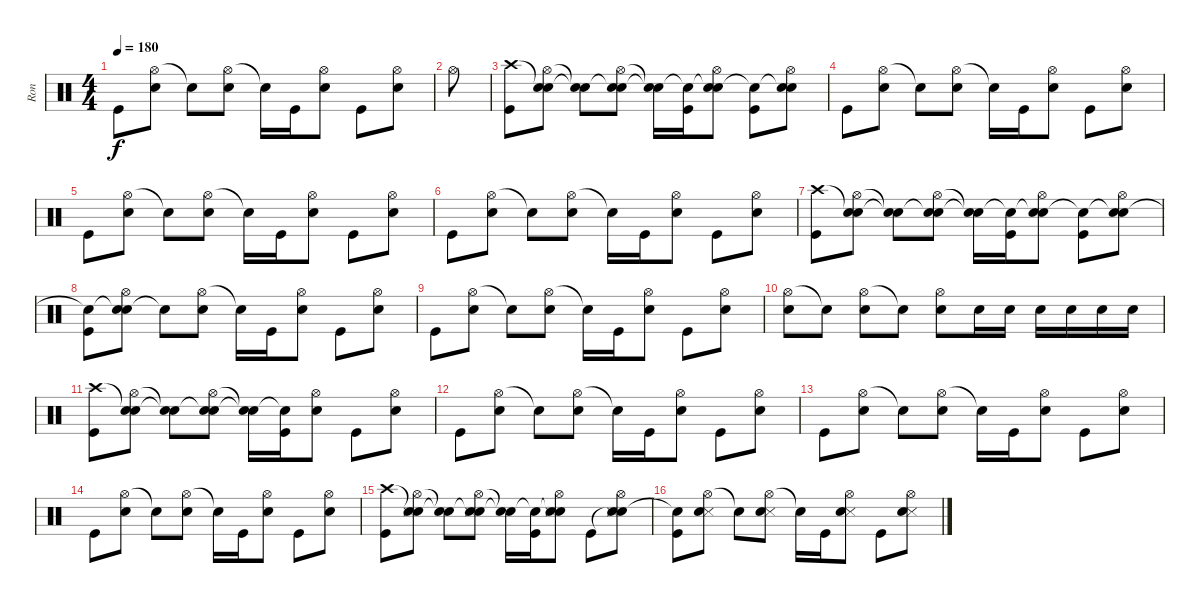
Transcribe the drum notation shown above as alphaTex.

\track ("Ron" "Ron") {instrument percussion}
\staff {score}
\articulation defaults
\ts (4 4)
\tempo 180
\clef neutral
\ks c "Kick (hit)".8{dy f}
("Hi-Hat (open)" "Electric Snare (hit)").8 "Snare (hit)"{t}.8 ("Hi-Hat (open)" "Electric Snare (hit)").8 "Snare (hit)"{t}.16 "Kick (hit)".16 ("Hi-Hat (open)" "Electric Snare (hit)").8 "Kick (hit)".8 ("Hi-Hat (open)" "Electric Snare (hit)").8 |
"Hi-Hat (open)".8 |
("Crash high (hit)" "Kick (hit)").8 ("Snare (hit)"{t} "Hi-Hat (open)" "Electric Snare (hit)").8 ("Snare (hit)"{t} "Snare (hit)"{t}).8 ("Snare (hit)"{t} "Hi-Hat (open)" "Electric Snare (hit)").8 ("Snare (hit)"{t} "Snare (hit)"{t}).16 ("Snare (hit)"{t} "Kick (hit)").16 ("Snare (hit)"{t} "Hi-Hat (open)" "Electric Snare (hit)").8 ("Snare (hit)"{t} "Kick (hit)").8 ("Snare (hit)"{t} "Hi-Hat (open)" "Electric Snare (hit)").8 |
"Kick (hit)".8 ("Hi-Hat (open)" "Electric Snare (hit)").8 "Snare (hit)"{t}.8 ("Hi-Hat (open)" "Electric Snare (hit)").8 "Snare (hit)"{t}.16 "Kick (hit)".16 ("Hi-Hat (open)" "Electric Snare (hit)").8 "Kick (hit)".8 ("Hi-Hat (open)" "Electric Snare (hit)").8 |
"Kick (hit)".8 ("Hi-Hat (open)" "Electric Snare (hit)").8 "Snare (hit)"{t}.8 ("Hi-Hat (open)" "Electric Snare (hit)").8 "Snare (hit)"{t}.16 "Kick (hit)".16 ("Hi-Hat (open)" "Electric Snare (hit)").8 "Kick (hit)".8 ("Hi-Hat (open)" "Electric Snare (hit)").8 |
"Kick (hit)".8 ("Hi-Hat (open)" "Electric Snare (hit)").8 "Snare (hit)"{t}.8 ("Hi-Hat (open)" "Electric Snare (hit)").8 "Snare (hit)"{t}.16 "Kick (hit)".16 ("Hi-Hat (open)" "Electric Snare (hit)").8 "Kick (hit)".8 ("Hi-Hat (open)" "Electric Snare (hit)").8 |
("Crash high (hit)" "Kick (hit)").8 ("Snare (hit)"{t} "Hi-Hat (open)" "Electric Snare (hit)").8 ("Snare (hit)"{t} "Snare (hit)"{t}).8 ("Snare (hit)"{t} "Hi-Hat (open)" "Electric Snare (hit)").8 ("Snare (hit)"{t} "Snare (hit)"{t}).16 ("Snare (hit)"{t} "Kick (hit)").16 ("Snare (hit)"{t} "Hi-Hat (open)" "Electric Snare (hit)").8 ("Snare (hit)"{t} "Kick (hit)").8 ("Snare (hit)"{t} "Hi-Hat (open)" "Electric Snare (hit)").8 |
("Snare (hit)"{t} "Kick (hit)").8 ("Snare (hit)"{t} "Hi-Hat (open)" "Electric Snare (hit)").8 "Snare (hit)"{t}.8 ("Hi-Hat (open)" "Electric Snare (hit)").8 "Snare (hit)"{t}.16 "Kick (hit)".16 ("Hi-Hat (open)" "Electric Snare (hit)").8 "Kick (hit)".8 ("Hi-Hat (open)" "Electric Snare (hit)").8 |
"Kick (hit)".8 ("Hi-Hat (open)" "Electric Snare (hit)").8 "Snare (hit)"{t}.8 ("Hi-Hat (open)" "Electric Snare (hit)").8 "Snare (hit)"{t}.16 "Kick (hit)".16 ("Hi-Hat (open)" "Electric Snare (hit)").8 "Kick (hit)".8 ("Hi-Hat (open)" "Electric Snare (hit)").8 |
("Hi-Hat (open)" "Electric Snare (hit)").8 "Snare (hit)"{t}.8 ("Hi-Hat (open)" "Electric Snare (hit)").8 "Snare (hit)"{t}.8 ("Hi-Hat (open)" "Electric Snare (hit)").8 "Electric Snare (hit)".16 "Electric Snare (hit)".16 "Electric Snare (hit)".16 "Electric Snare (hit)".16 "Electric Snare (hit)".16 "Electric Snare (hit)".16 |
("Crash high (hit)" "Kick (hit)").8 ("Snare (hit)"{t} "Hi-Hat (open)" "Electric Snare (hit)").8 ("Snare (hit)"{t} "Snare (hit)"{t}).8 ("Snare (hit)"{t} "Hi-Hat (open)" "Electric Snare (hit)").8 ("Snare (hit)"{t} "Snare (hit)"{t}).16 ("Snare (hit)"{t} "Kick (hit)").16 ("Hi-Hat (open)" "Electric Snare (hit)").8 "Kick (hit)".8 ("Hi-Hat (open)" "Electric Snare (hit)").8 |
"Kick (hit)".8 ("Hi-Hat (open)" "Electric Snare (hit)").8 "Snare (hit)"{t}.8 ("Hi-Hat (open)" "Electric Snare (hit)").8 "Snare (hit)"{t}.16 "Kick (hit)".16 ("Hi-Hat (open)" "Electric Snare (hit)").8 "Kick (hit)".8 ("Hi-Hat (open)" "Electric Snare (hit)").8 |
"Kick (hit)".8 ("Hi-Hat (open)" "Electric Snare (hit)").8 "Snare (hit)"{t}.8 ("Hi-Hat (open)" "Electric Snare (hit)").8 "Snare (hit)"{t}.16 "Kick (hit)".16 ("Hi-Hat (open)" "Electric Snare (hit)").8 "Kick (hit)".8 ("Hi-Hat (open)" "Electric Snare (hit)").8 |
"Kick (hit)".8 ("Hi-Hat (open)" "Electric Snare (hit)").8 "Snare (hit)"{t}.8 ("Hi-Hat (open)" "Electric Snare (hit)").8 "Snare (hit)"{t}.16 "Kick (hit)".16 ("Hi-Hat (open)" "Electric Snare (hit)").8 "Kick (hit)".8 ("Hi-Hat (open)" "Electric Snare (hit)").8 |
("Crash high (hit)" "Kick (hit)").8 ("Snare (hit)"{t} "Hi-Hat (open)" "Snare (side stick) 3" "Electric Snare (hit)").8 ("Snare (hit)"{t} "Snare (hit)"{t}).8 ("Snare (hit)"{t} "Hi-Hat (open)" "Snare (side stick) 3" "Electric Snare (hit)").8 ("Snare (hit)"{t} "Snare (hit)"{t}).16 ("Snare (hit)"{t} "Kick (hit)").16 ("Snare (hit)"{t} "Hi-Hat (open)" "Snare (side stick) 3" "Electric Snare (hit)").8 "Kick (hit)".8 ("Snare (hit)"{t} "Hi-Hat (open)" "Snare (side stick) 3" "Electric Snare (hit)").8 |
("Snare (hit)"{t} "Kick (hit)").8 ("Hi-Hat (open)" "Snare (side stick) 3" "Electric Snare (hit)").8 "Snare (hit)"{t}.8 ("Hi-Hat (open)" "Snare (side stick) 3" "Electric Snare (hit)").8 "Snare (hit)"{t}.16 "Kick (hit)".16 ("Hi-Hat (open)" "Snare (side stick) 3" "Electric Snare (hit)").8 "Kick (hit)".8 ("Hi-Hat (open)" "Snare (side stick) 3" "Electric Snare (hit)").8
